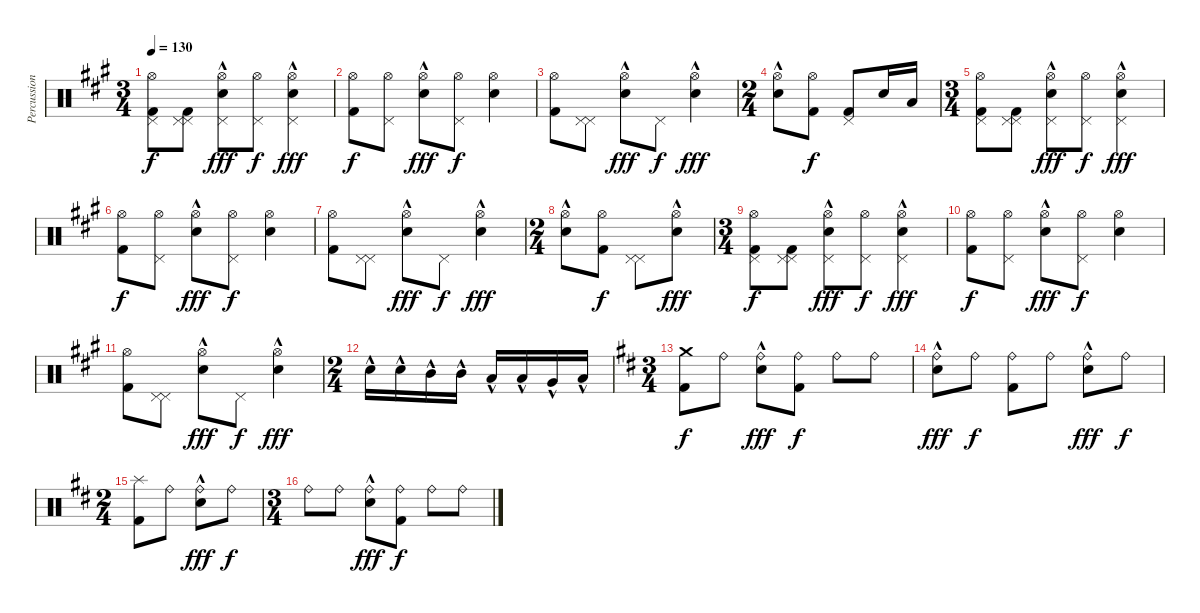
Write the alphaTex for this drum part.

\track ("Percussion" "Percussion") {instrument percussion bank 110}
\staff {score}
\articulation defaults
\ts (3 4)
\tempo 130
\clef neutral
\ks a
("Hi-Hat (open)" "Kick (hit) 2" "Pedal Hi-Hat (hit)").8{dy f} ("Pedal Hi-Hat (hit)" "Pedal Hi-Hat (hit)" "Kick (hit) 2").8 ("Hi-Hat (open)" "Electric Snare (hit)"{hac} "Pedal Hi-Hat (hit)").8{dy fff} ("Hi-Hat (open)" "Pedal Hi-Hat (hit)").8{dy f} ("Hi-Hat (open)" "Electric Snare (hit)"{hac} "Pedal Hi-Hat (hit)"{hac}).4{dy fff} |
("Hi-Hat (open)" "Kick (hit) 2").8{dy f} ("Pedal Hi-Hat (hit)" "Hi-Hat (open)").8 ("Electric Snare (hit)"{hac} "Hi-Hat (open)").8{dy fff} ("Pedal Hi-Hat (hit)" "Hi-Hat (open)").8{dy f} ("Hi-Hat (open)" "Electric Snare (hit)").4 |
("Hi-Hat (open)" "Kick (hit) 2").8 ("Pedal Hi-Hat (hit)" "Pedal Hi-Hat (hit)").8 ("Hi-Hat (open)" "Electric Snare (hit)"{hac}).8{dy fff} "Pedal Hi-Hat (hit)".8{dy f} ("Hi-Hat (open)" "Electric Snare (hit)"{hac}).4{dy fff} |
\ts (2 4)
("Electric Snare (hit)"{hac} "Hi-Hat (open)").8 ("Kick (hit) 2" "Hi-Hat (open)").8{dy f} ("Kick (hit) 2" "Pedal Hi-Hat (hit)").8 "Electric Snare (hit)".16 "Low Tom (hit)".16 |
\ts (3 4)
("Hi-Hat (open)" "Kick (hit) 2" "Pedal Hi-Hat (hit)").8 ("Pedal Hi-Hat (hit)" "Pedal Hi-Hat (hit)" "Kick (hit) 2").8 ("Hi-Hat (open)" "Electric Snare (hit)"{hac} "Pedal Hi-Hat (hit)").8{dy fff} ("Hi-Hat (open)" "Pedal Hi-Hat (hit)").8{dy f} ("Hi-Hat (open)" "Electric Snare (hit)"{hac} "Pedal Hi-Hat (hit)"{hac}).4{dy fff} |
("Hi-Hat (open)" "Kick (hit) 2").8{dy f} ("Pedal Hi-Hat (hit)" "Hi-Hat (open)").8 ("Electric Snare (hit)"{hac} "Hi-Hat (open)").8{dy fff} ("Pedal Hi-Hat (hit)" "Hi-Hat (open)").8{dy f} ("Hi-Hat (open)" "Electric Snare (hit)").4 |
("Hi-Hat (open)" "Kick (hit) 2").8 ("Pedal Hi-Hat (hit)" "Pedal Hi-Hat (hit)").8 ("Hi-Hat (open)" "Electric Snare (hit)"{hac}).8{dy fff} "Pedal Hi-Hat (hit)".8{dy f} ("Hi-Hat (open)" "Electric Snare (hit)"{hac}).4{dy fff} |
\ts (2 4)
("Electric Snare (hit)"{hac} "Hi-Hat (open)").8 ("Kick (hit) 2" "Hi-Hat (open)").8{dy f} ("Pedal Hi-Hat (hit)" "Pedal Hi-Hat (hit)").8 ("Electric Snare (hit)"{hac} "Hi-Hat (open)").8{dy fff} |
\ts (3 4)
("Hi-Hat (open)" "Kick (hit) 2" "Pedal Hi-Hat (hit)").8{dy f} ("Pedal Hi-Hat (hit)" "Pedal Hi-Hat (hit)" "Kick (hit) 2").8 ("Hi-Hat (open)" "Electric Snare (hit)"{hac} "Pedal Hi-Hat (hit)").8{dy fff} ("Hi-Hat (open)" "Pedal Hi-Hat (hit)").8{dy f} ("Hi-Hat (open)" "Electric Snare (hit)"{hac} "Pedal Hi-Hat (hit)"{hac}).4{dy fff} |
("Hi-Hat (open)" "Kick (hit) 2").8{dy f} ("Pedal Hi-Hat (hit)" "Hi-Hat (open)").8 ("Electric Snare (hit)"{hac} "Hi-Hat (open)").8{dy fff} ("Pedal Hi-Hat (hit)" "Hi-Hat (open)").8{dy f} ("Hi-Hat (open)" "Electric Snare (hit)").4 |
("Hi-Hat (open)" "Kick (hit) 2").8 ("Pedal Hi-Hat (hit)" "Pedal Hi-Hat (hit)").8 ("Hi-Hat (open)" "Electric Snare (hit)"{hac}).8{dy fff} "Pedal Hi-Hat (hit)".8{dy f} ("Hi-Hat (open)" "Electric Snare (hit)"{hac}).4{dy fff} |
\ts (2 4)
"Electric Snare (hit)"{hac}.16 "Electric Snare (hit)"{hac}.16 "Mid Tom (hit)"{hac}.16 "Mid Tom (hit)"{hac}.16 "Low Tom (hit)"{hac}.16 "Low Tom (hit)"{hac}.16 "Very Low Tom (hit)"{hac}.16 "Low Floor Tom (hit)"{hac}.16 |
\ts (3 4)
\ks d
("Crash medium (hit)" "Kick (hit) 2").8{dy f} "Ride (bell)".8 ("Ride (bell)" "Electric Snare (hit)"{hac}).8{dy fff} ("Ride (bell)" "Kick (hit) 2").8{dy f} "Ride (bell)".8 "Ride (bell)".8 |
("Ride (bell)" "Electric Snare (hit)"{hac}).8{dy fff} "Ride (bell)".8{dy f} ("Ride (bell)" "Kick (hit) 2").8 "Ride (bell)".8 ("Ride (bell)" "Electric Snare (hit)"{hac}).8{dy fff} "Ride (bell)".8{dy f} |
\ts (2 4)
("Splash (hit)" "Kick (hit) 2").8 "Ride (bell)".8 ("Ride (bell)" "Electric Snare (hit)"{hac}).8{dy fff} "Ride (bell)".8{dy f} |
\ts (3 4)
"Ride (bell)".8 "Ride (bell)".8 ("Ride (bell)" "Electric Snare (hit)"{hac}).8{dy fff} ("Ride (bell)" "Kick (hit) 2").8{dy f} "Ride (bell)".8 "Ride (bell)".8
